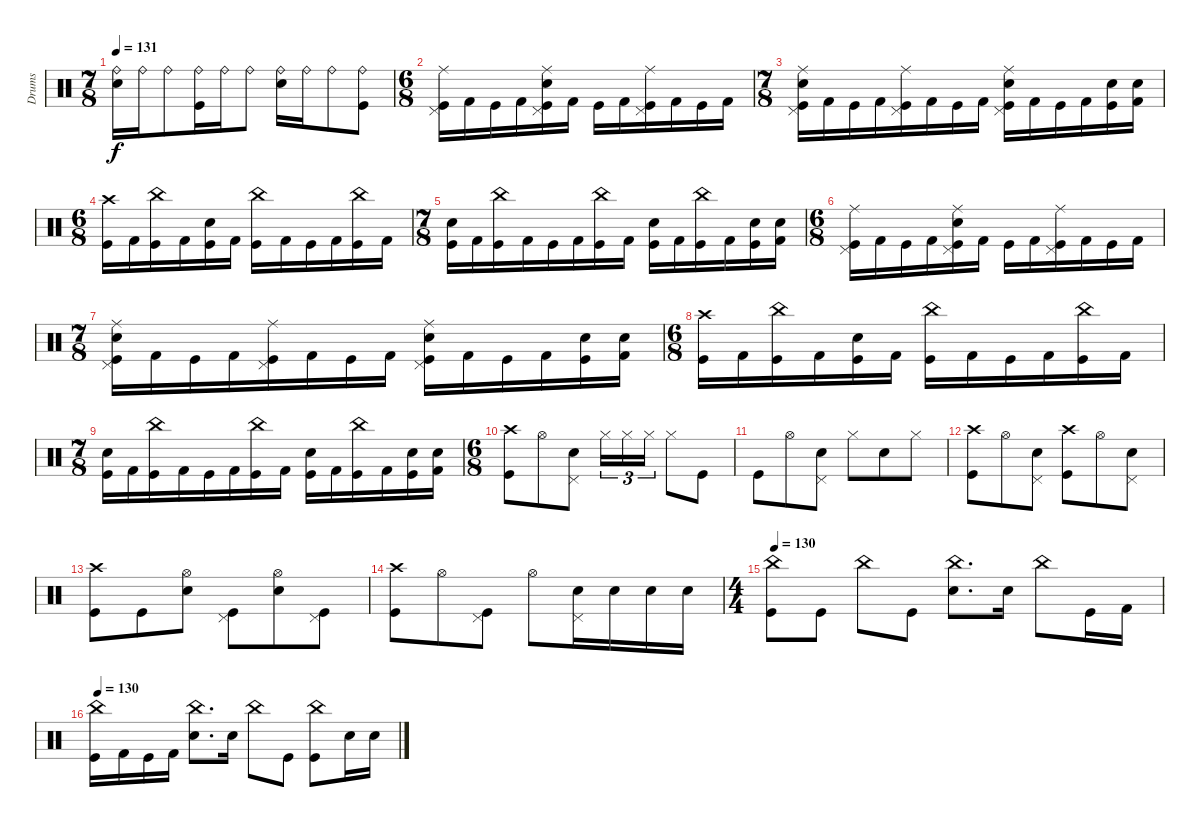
\track ("Drums" "Drums") {instrument percussion}
\staff {score}
\articulation defaults
\ts (7 8)
\tempo 131
\clef neutral
\ks c
("Ride (bell)" "Snare (hit) 2").16{dy f} "Ride (bell)".16 "Ride (bell)".8 ("Ride (bell)" "Kick (hit)").16 "Ride (bell)".16 "Ride (bell)".8 ("Ride (bell)" "Snare (hit) 2").16 "Ride (bell)".16 "Ride (bell)".8 ("Ride (bell)" "Kick (hit)").8 |
\ts (6 8)
("Pedal Hi-Hat (hit)" "Ride (middle)" "Kick (hit)").16 "Kick (hit) 2".16 "Kick (hit)".16 "Kick (hit) 2".16 ("Pedal Hi-Hat (hit)" "Ride (middle)" "Snare (hit) 2" "Kick (hit)").16 "Kick (hit) 2".16 "Kick (hit)".16 "Kick (hit) 2".16 ("Pedal Hi-Hat (hit)" "Ride (middle)" "Kick (hit)").16 "Kick (hit) 2".16 "Kick (hit)".16 "Kick (hit) 2".16 |
\ts (7 8)
("Pedal Hi-Hat (hit)" "Ride (middle)" "Snare (hit) 2" "Kick (hit)").16 "Kick (hit) 2".16 "Kick (hit)".16 "Kick (hit) 2".16 ("Pedal Hi-Hat (hit)" "Ride (middle)" "Kick (hit)").16 "Kick (hit) 2".16 "Kick (hit)".16 "Kick (hit) 2".16 ("Pedal Hi-Hat (hit)" "Ride (middle)" "Snare (hit) 2" "Kick (hit)").16 "Kick (hit) 2".16 "Kick (hit)".16 "Kick (hit) 2".16 ("Snare (hit) 2" "Kick (hit)").16 ("Snare (hit) 2" "Kick (hit) 2").16 |
\ts (6 8)
("Kick (hit)" "Crash high (hit)").16 "Kick (hit) 2".16 ("Kick (hit)" "China (hit)").16 "Kick (hit) 2".16 ("Kick (hit)" "Snare (hit) 2").16 "Kick (hit) 2".16 ("Kick (hit)" "China (hit)").16 "Kick (hit) 2".16 "Kick (hit)".16 "Kick (hit) 2".16 ("Kick (hit)" "China (hit)").16 "Kick (hit) 2".16 |
\ts (7 8)
("Snare (hit) 2" "Kick (hit)").16 "Kick (hit) 2".16 ("China (hit)" "Kick (hit)").16 "Kick (hit) 2".16 "Kick (hit)".16 "Kick (hit) 2".16 ("China (hit)" "Kick (hit)").16 "Kick (hit) 2".16 ("Snare (hit) 2" "Kick (hit)").16 "Kick (hit) 2".16 ("China (hit)" "Kick (hit)").16 "Kick (hit) 2".16 ("Snare (hit) 2" "Kick (hit)").16 ("Snare (hit) 2" "Kick (hit) 2").16 |
\ts (6 8)
("Pedal Hi-Hat (hit)" "Ride (middle)" "Kick (hit)").16 "Kick (hit) 2".16 "Kick (hit)".16 "Kick (hit) 2".16 ("Pedal Hi-Hat (hit)" "Ride (middle)" "Snare (hit) 2" "Kick (hit)").16 "Kick (hit) 2".16 "Kick (hit)".16 "Kick (hit) 2".16 ("Pedal Hi-Hat (hit)" "Ride (middle)" "Kick (hit)").16 "Kick (hit) 2".16 "Kick (hit)".16 "Kick (hit) 2".16 |
\ts (7 8)
("Pedal Hi-Hat (hit)" "Ride (middle)" "Snare (hit) 2" "Kick (hit)").16 "Kick (hit) 2".16 "Kick (hit)".16 "Kick (hit) 2".16 ("Pedal Hi-Hat (hit)" "Ride (middle)" "Kick (hit)").16 "Kick (hit) 2".16 "Kick (hit)".16 "Kick (hit) 2".16 ("Pedal Hi-Hat (hit)" "Ride (middle)" "Snare (hit) 2" "Kick (hit)").16 "Kick (hit) 2".16 "Kick (hit)".16 "Kick (hit) 2".16 ("Snare (hit) 2" "Kick (hit)").16 ("Snare (hit) 2" "Kick (hit) 2").16 |
\ts (6 8)
("Kick (hit)" "Crash high (hit)").16 "Kick (hit) 2".16 ("Kick (hit)" "China (hit)").16 "Kick (hit) 2".16 ("Kick (hit)" "Snare (hit) 2").16 "Kick (hit) 2".16 ("Kick (hit)" "China (hit)").16 "Kick (hit) 2".16 "Kick (hit)".16 "Kick (hit) 2".16 ("Kick (hit)" "China (hit)").16 "Kick (hit) 2".16 |
\ts (7 8)
("Snare (hit) 2" "Kick (hit)").16 "Kick (hit) 2".16 ("China (hit)" "Kick (hit)").16 "Kick (hit) 2".16 "Kick (hit)".16 "Kick (hit) 2".16 ("China (hit)" "Kick (hit)").16 "Kick (hit) 2".16 ("Snare (hit) 2" "Kick (hit)").16 "Kick (hit) 2".16 ("China (hit)" "Kick (hit)").16 "Kick (hit) 2".16 ("Snare (hit) 2" "Kick (hit)").16 ("Snare (hit) 2" "Kick (hit) 2").16 |
\ts (6 8)
("Crash high (hit)" "Kick (hit)").8 "Hi-Hat (open)".8 ("Snare (hit) 2" "Pedal Hi-Hat (hit)").8 "Hi-Hat (closed)".16{tu (3 2)} "Hi-Hat (closed)".16{tu (3 2)} "Hi-Hat (closed)".16{tu (3 2)} "Hi-Hat (closed)".8 "Kick (hit)".8 |
"Kick (hit)".8 "Hi-Hat (open)".8 ("Snare (hit) 2" "Pedal Hi-Hat (hit)").8 "Hi-Hat (closed)".8 "Snare (hit) 2".8 "Hi-Hat (closed)".8 |
("Crash high (hit)" "Kick (hit)").8 "Hi-Hat (open)".8 ("Snare (hit) 2" "Pedal Hi-Hat (hit)").8 ("Crash high (hit)" "Kick (hit)").8 "Hi-Hat (open)".8 ("Snare (hit) 2" "Pedal Hi-Hat (hit)").8 |
("Kick (hit)" "Crash high (hit)").8 "Kick (hit)".8 ("Hi-Hat (open)" "Snare (hit) 2").8 ("Kick (hit)" "Pedal Hi-Hat (hit)").8 ("Electric Snare (hit)" "Hi-Hat (open)").8 ("Kick (hit)" "Pedal Hi-Hat (hit)").8 |
("Kick (hit)" "Crash high (hit)").8 "Hi-Hat (open)".8 ("Kick (hit)" "Pedal Hi-Hat (hit)").8 "Hi-Hat (open)".8 ("Snare (hit) 2" "Pedal Hi-Hat (hit)").16 "Snare (hit) 2".16 "Snare (hit) 2".16 "Snare (hit) 2".16 |
\ts (4 4)
\tempo 130
("China (hit)" "Kick (hit)").8 "Kick (hit)".8 "China (hit)".8 "Kick (hit)".8 ("Snare (hit) 2" "China (hit)").8{d} "Snare (hit) 2".16 "China (hit)".8 "Kick (hit)".16 "Kick (hit) 2".16 |
\tempo 130
("China (hit)" "Kick (hit)").16 "Kick (hit) 2".16 "Kick (hit)".16 "Kick (hit) 2".16 ("China (hit)" "Snare (hit) 2").8{d} "Snare (hit) 2".16 "China (hit)".8 "Kick (hit)".8 ("China (hit)" "Kick (hit)").8 "Snare (hit) 2".16 "Snare (hit) 2".16
